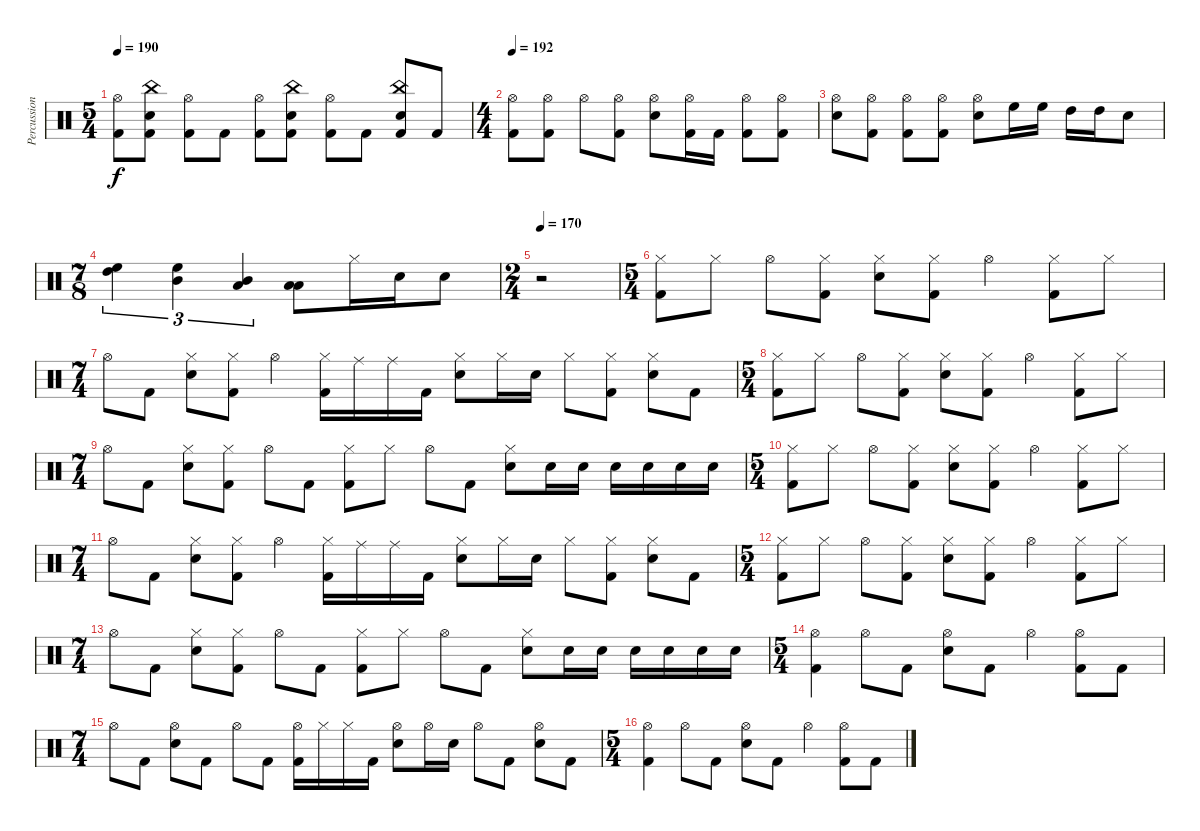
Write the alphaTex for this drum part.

\track ("Percussion" "Percussion") {instrument percussion}
\staff {score}
\articulation defaults
\ts (5 4)
\tempo 190
\clef neutral
\ks c
("Hi-Hat (open)" "Kick (hit) 2").8{dy f} ("China (hit)" "Electric Snare (hit)" "Kick (hit) 2").8 ("Hi-Hat (open)" "Kick (hit) 2").8 "Kick (hit) 2".8 ("Hi-Hat (open)" "Kick (hit) 2").8 ("China (hit)" "Electric Snare (hit)" "Kick (hit) 2").8 ("Hi-Hat (open)" "Kick (hit) 2").8 "Kick (hit) 2".8 ("China (hit)" "Electric Snare (hit)" "Kick (hit) 2").8 "Kick (hit) 2".8 |
\ts (4 4)
\tempo 192
("Hi-Hat (open)" "Kick (hit) 2").8 ("Hi-Hat (open)" "Kick (hit) 2").8 "Hi-Hat (open)".8 ("Hi-Hat (open)" "Kick (hit) 2").8 ("Hi-Hat (open)" "Electric Snare (hit)").8 ("Hi-Hat (open)" "Kick (hit) 2").16 "Kick (hit) 2".16 ("Hi-Hat (open)" "Kick (hit) 2").8 ("Hi-Hat (open)" "Kick (hit) 2").8 |
("Hi-Hat (open)" "Electric Snare (hit)").8 ("Hi-Hat (open)" "Kick (hit) 2").8 ("Hi-Hat (open)" "Kick (hit) 2").8 ("Hi-Hat (open)" "Kick (hit) 2").8 ("Hi-Hat (open)" "Electric Snare (hit)").8 "High Floor Tom (hit)".16 "High Floor Tom (hit)".16 "High Tom (hit)".16 "High Tom (hit)".16 "Electric Snare (hit)".8 |
\ts (7 8)
("High Floor Tom (hit)" "High Tom (hit)").4{tu (3 2)} ("High Floor Tom (hit)" "Mid Tom (hit)").4{tu (3 2)} ("Mid Tom (hit)" "Low Tom (hit)").4{tu (3 2)} ("Low Tom (hit)" "Low Floor Tom (hit)").8 "Hi-Hat (closed)".16 "Electric Snare (hit)".16 "Electric Snare (hit)".8 |
\ts (2 4)
\tempo 170
r.2 |
\ts (5 4)
("Hi-Hat (closed)" "Kick (hit) 2").8 "Hi-Hat (closed)".8 "Hi-Hat (open)".8 ("Hi-Hat (closed)" "Kick (hit) 2").8 ("Hi-Hat (closed)" "Electric Snare (hit)").8 ("Hi-Hat (closed)" "Kick (hit) 2").8 "Hi-Hat (open)".4 ("Hi-Hat (closed)" "Kick (hit) 2").8 "Hi-Hat (closed)".8 |
\ts (7 4)
"Hi-Hat (open)".8 "Kick (hit) 2".8 ("Hi-Hat (closed)" "Electric Snare (hit)").8 ("Hi-Hat (closed)" "Kick (hit) 2").8 "Hi-Hat (open)".4 ("Hi-Hat (closed)" "Kick (hit) 2").16 "Ride (middle)".16 "Ride (middle)".16 "Kick (hit) 2".16 ("Hi-Hat (closed)" "Electric Snare (hit)").8 "Hi-Hat (closed)".16 "Electric Snare (hit)".16 "Hi-Hat (closed)".8 ("Hi-Hat (closed)" "Kick (hit) 2").8 ("Hi-Hat (closed)" "Electric Snare (hit)").8 "Kick (hit) 2".8 |
\ts (5 4)
("Hi-Hat (closed)" "Kick (hit) 2").8 "Hi-Hat (closed)".8 "Hi-Hat (open)".8 ("Hi-Hat (closed)" "Kick (hit) 2").8 ("Hi-Hat (closed)" "Electric Snare (hit)").8 ("Hi-Hat (closed)" "Kick (hit) 2").8 "Hi-Hat (open)".4 ("Hi-Hat (closed)" "Kick (hit) 2").8 "Hi-Hat (closed)".8 |
\ts (7 4)
"Hi-Hat (open)".8 "Kick (hit) 2".8 ("Hi-Hat (closed)" "Electric Snare (hit)").8 ("Hi-Hat (closed)" "Kick (hit) 2").8 "Hi-Hat (open)".8 "Kick (hit) 2".8 ("Hi-Hat (closed)" "Kick (hit) 2").8 "Hi-Hat (closed)".8 "Hi-Hat (open)".8 "Kick (hit) 2".8 ("Hi-Hat (closed)" "Electric Snare (hit)").8 "Electric Snare (hit)".16 "Electric Snare (hit)".16 "Electric Snare (hit)".16 "Electric Snare (hit)".16 "Electric Snare (hit)".16 "Electric Snare (hit)".16 |
\ts (5 4)
("Hi-Hat (closed)" "Kick (hit) 2").8 "Hi-Hat (closed)".8 "Hi-Hat (open)".8 ("Hi-Hat (closed)" "Kick (hit) 2").8 ("Hi-Hat (closed)" "Electric Snare (hit)").8 ("Hi-Hat (closed)" "Kick (hit) 2").8 "Hi-Hat (open)".4 ("Hi-Hat (closed)" "Kick (hit) 2").8 "Hi-Hat (closed)".8 |
\ts (7 4)
"Hi-Hat (open)".8 "Kick (hit) 2".8 ("Hi-Hat (closed)" "Electric Snare (hit)").8 ("Hi-Hat (closed)" "Kick (hit) 2").8 "Hi-Hat (open)".4 ("Hi-Hat (closed)" "Kick (hit) 2").16 "Ride (middle)".16 "Ride (middle)".16 "Kick (hit) 2".16 ("Hi-Hat (closed)" "Electric Snare (hit)").8 "Hi-Hat (closed)".16 "Electric Snare (hit)".16 "Hi-Hat (closed)".8 ("Hi-Hat (closed)" "Kick (hit) 2").8 ("Hi-Hat (closed)" "Electric Snare (hit)").8 "Kick (hit) 2".8 |
\ts (5 4)
("Hi-Hat (closed)" "Kick (hit) 2").8 "Hi-Hat (closed)".8 "Hi-Hat (open)".8 ("Hi-Hat (closed)" "Kick (hit) 2").8 ("Hi-Hat (closed)" "Electric Snare (hit)").8 ("Hi-Hat (closed)" "Kick (hit) 2").8 "Hi-Hat (open)".4 ("Hi-Hat (closed)" "Kick (hit) 2").8 "Hi-Hat (closed)".8 |
\ts (7 4)
"Hi-Hat (open)".8 "Kick (hit) 2".8 ("Hi-Hat (closed)" "Electric Snare (hit)").8 ("Hi-Hat (closed)" "Kick (hit) 2").8 "Hi-Hat (open)".8 "Kick (hit) 2".8 ("Hi-Hat (closed)" "Kick (hit) 2").8 "Hi-Hat (closed)".8 "Hi-Hat (open)".8 "Kick (hit) 2".8 ("Hi-Hat (closed)" "Electric Snare (hit)").8 "Electric Snare (hit)".16 "Electric Snare (hit)".16 "Electric Snare (hit)".16 "Electric Snare (hit)".16 "Electric Snare (hit)".16 "Electric Snare (hit)".16 |
\ts (5 4)
("Hi-Hat (open)" "Kick (hit) 2").4 "Hi-Hat (open)".8 "Kick (hit) 2".8 ("Hi-Hat (open)" "Electric Snare (hit)").8 "Kick (hit) 2".8 "Hi-Hat (open)".4 ("Hi-Hat (open)" "Kick (hit) 2").8 "Kick (hit) 2".8 |
\ts (7 4)
"Hi-Hat (open)".8 "Kick (hit) 2".8 ("Hi-Hat (open)" "Electric Snare (hit)").8 "Kick (hit) 2".8 "Hi-Hat (open)".8 "Kick (hit) 2".8 ("Hi-Hat (open)" "Kick (hit) 2").16 "Hi-Hat (closed)".16 "Hi-Hat (closed)".16 "Kick (hit) 2".16 ("Hi-Hat (open)" "Electric Snare (hit)").8 "Hi-Hat (open)".16 "Electric Snare (hit)".16 "Hi-Hat (open)".8 "Kick (hit) 2".8 ("Hi-Hat (open)" "Electric Snare (hit)").8 "Kick (hit) 2".8 |
\ts (5 4)
("Hi-Hat (open)" "Kick (hit) 2").4 "Hi-Hat (open)".8 "Kick (hit) 2".8 ("Hi-Hat (open)" "Electric Snare (hit)").8 "Kick (hit) 2".8 "Hi-Hat (open)".4 ("Hi-Hat (open)" "Kick (hit) 2").8 "Kick (hit) 2".8
